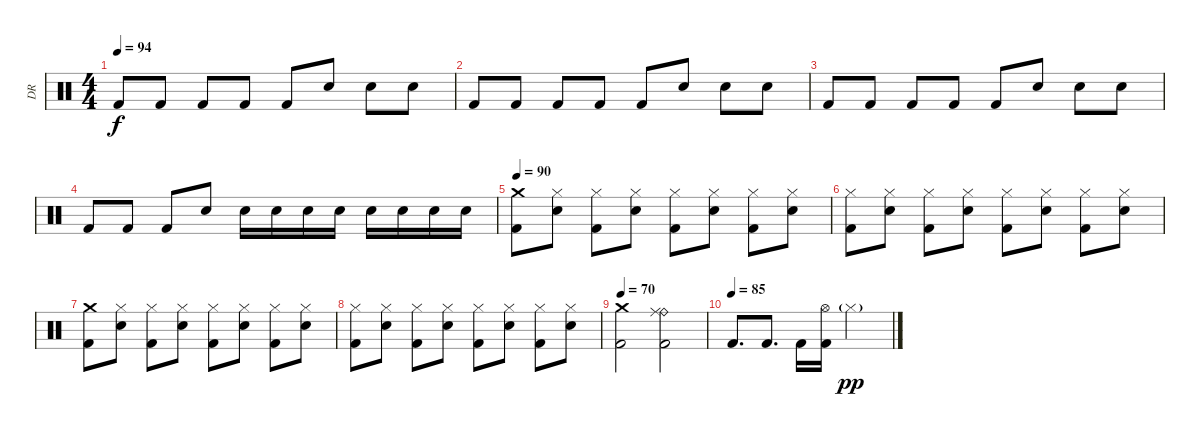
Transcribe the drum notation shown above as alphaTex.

\track ("DR" "DR") {instrument percussion}
\staff {score}
\articulation defaults
\ts (4 4)
\tempo 94
\clef neutral
\ks c "Kick (hit) 2".8{dy f} "Kick (hit) 2".8 "Kick (hit) 2".8 "Kick (hit) 2".8 "Kick (hit) 2".8 "Snare (hit)".8 "Snare (hit)".8 "Snare (hit)".8
|
"Kick (hit) 2".8 "Kick (hit) 2".8 "Kick (hit) 2".8 "Kick (hit) 2".8 "Kick (hit) 2".8 "Snare (hit)".8 "Snare (hit)".8 "Snare (hit)".8 |
"Kick (hit) 2".8 "Kick (hit) 2".8 "Kick (hit) 2".8 "Kick (hit) 2".8 "Kick (hit) 2".8 "Snare (hit)".8 "Snare (hit)".8 "Snare (hit)".8 |
"Kick (hit) 2".8 "Kick (hit) 2".8 "Kick (hit) 2".8 "Snare (hit) 2".8 "Snare (hit) 2".16 "Snare (hit) 2".16 "Snare (hit) 2".16 "Snare (hit) 2".16 "Snare (hit) 2".16 "Snare (hit) 2".16 "Snare (hit) 2".16 "Snare (hit) 2".16 |
\tempo 90
("Crash medium (hit)" "Kick (hit) 2").8 ("Hi-Hat (closed)" "Snare (hit) 2").8 ("Hi-Hat (closed)" "Kick (hit) 2").8 ("Hi-Hat (closed)" "Snare (hit) 2").8 ("Hi-Hat (closed)" "Kick (hit) 2").8 ("Hi-Hat (closed)" "Snare (hit) 2").8 ("Hi-Hat (closed)" "Kick (hit) 2").8 ("Hi-Hat (closed)" "Snare (hit) 2").8 |
("Hi-Hat (closed)" "Kick (hit) 2").8 ("Hi-Hat (closed)" "Snare (hit) 2").8 ("Hi-Hat (closed)" "Kick (hit) 2").8 ("Hi-Hat (closed)" "Snare (hit) 2").8 ("Hi-Hat (closed)" "Kick (hit) 2").8 ("Hi-Hat (closed)" "Snare (hit) 2").8 ("Hi-Hat (closed)" "Kick (hit) 2").8 ("Hi-Hat (closed)" "Snare (hit) 2").8 |
("Crash medium (hit)" "Kick (hit) 2").8 ("Hi-Hat (closed)" "Snare (hit) 2").8 ("Hi-Hat (closed)" "Kick (hit) 2").8 ("Hi-Hat (closed)" "Snare (hit) 2").8 ("Hi-Hat (closed)" "Kick (hit) 2").8 ("Hi-Hat (closed)" "Snare (hit) 2").8 ("Hi-Hat (closed)" "Kick (hit) 2").8 ("Hi-Hat (closed)" "Snare (hit) 2").8 |
("Hi-Hat (closed)" "Kick (hit) 2").8 ("Hi-Hat (closed)" "Snare (hit) 2").8 ("Hi-Hat (closed)" "Kick (hit) 2").8 ("Hi-Hat (closed)" "Snare (hit) 2").8 ("Hi-Hat (closed)" "Kick (hit) 2").8 ("Hi-Hat (closed)" "Snare (hit) 2").8 ("Hi-Hat (closed)" "Kick (hit) 2").8 ("Hi-Hat (closed)" "Snare (hit) 2").8 |
\tempo 70
("Crash medium (hit)" "Kick (hit) 2").2 ("Ride (bell)" "Ride (middle)" "Kick (hit) 2").2 |
\tempo (85)
"Kick (hit) 2".8{d} "Kick (hit) 2".8{d} "Kick (hit) 2".16 ("Kick (hit) 2" "Hi-Hat (open)").16 "Hi-Hat (closed)"{g}.2{dy pp}
